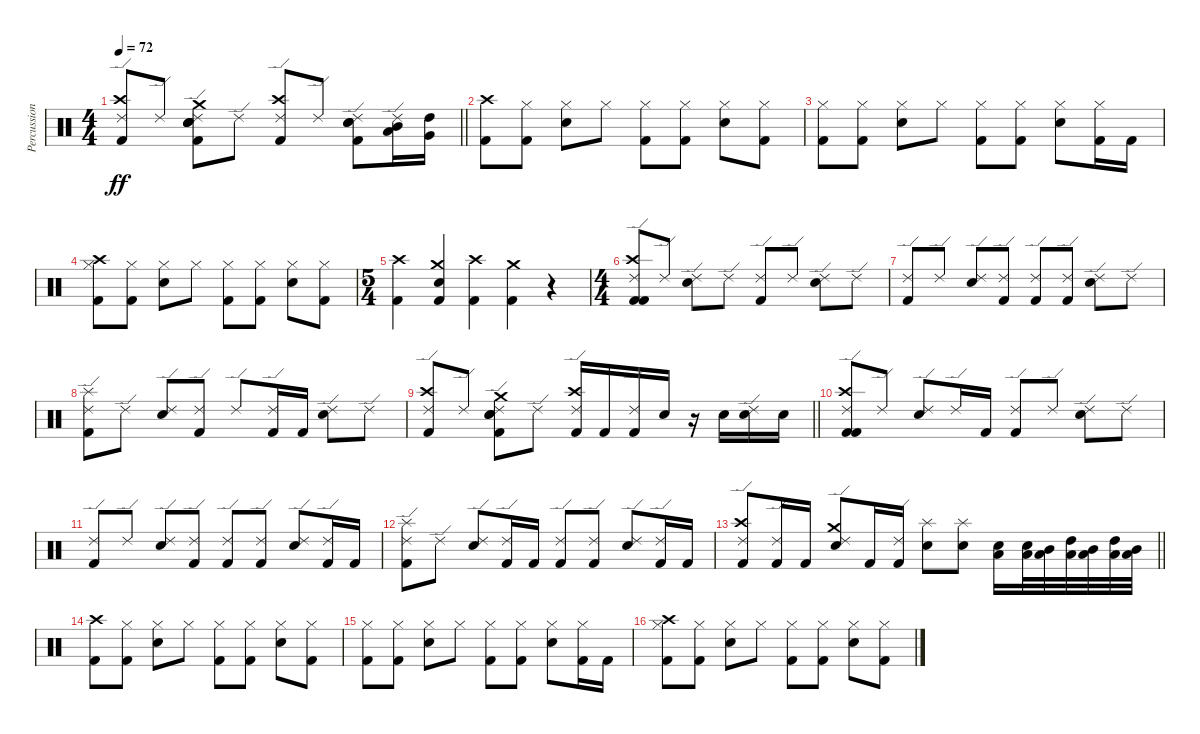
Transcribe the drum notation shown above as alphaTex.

\track ("Percussion" "Percussion") {instrument percussion}
\staff {score}
\articulation defaults
\ts (4 4)
\tempo 72
\clef neutral
\barLineRight lightlight
\ks c
("Ride (edge) 2" "Crash high (hit)" "Kick (hit) 2").8{dy ff} "Ride (edge) 2".8 ("Hand Clap (hit)" "Electric Snare (hit)" "Ride (edge) 2" "Crash medium (hit)" "Kick (hit) 2" "Snare (hit) 2").8 "Ride (edge) 2".8 ("Ride (edge) 2" "Crash high (hit)" "Kick (hit) 2").8 "Ride (edge) 2".8 ("Ride (edge) 2" "Snare (hit) 2" "Electric Snare (hit)" "Kick (hit) 2").8 ("Ride (edge) 2" "Low Floor Tom (hit)" "Mid Tom (hit)").16 ("Very Low Tom (hit)" "High Tom (hit)").16 |
("Crash high (hit)" "Kick (hit) 2").8 ("Hi-Hat (closed)" "Kick (hit) 2").8 ("Hi-Hat (closed)" "Snare (hit) 2").8 "Hi-Hat (closed)".8 ("Hi-Hat (closed)" "Kick (hit) 2").8 ("Hi-Hat (closed)" "Kick (hit) 2").8 ("Hi-Hat (closed)" "Snare (hit) 2").8 ("Hi-Hat (closed)" "Kick (hit) 2").8 |
("Hi-Hat (closed)" "Kick (hit) 2").8 ("Hi-Hat (closed)" "Kick (hit) 2").8 ("Hi-Hat (closed)" "Snare (hit) 2").8 "Hi-Hat (closed)".8 ("Hi-Hat (closed)" "Kick (hit) 2").8 ("Hi-Hat (closed)" "Kick (hit) 2").8 ("Hi-Hat (closed)" "Snare (hit) 2").8 ("Hi-Hat (closed)" "Kick (hit) 2").16 "Kick (hit) 2".16 |
("Hi-Hat (closed)" "Crash high (hit)" "Kick (hit) 2").8 ("Hi-Hat (closed)" "Kick (hit) 2").8 ("Hi-Hat (closed)" "Snare (hit) 2").8 "Hi-Hat (closed)".8 ("Hi-Hat (closed)" "Kick (hit) 2").8 ("Hi-Hat (closed)" "Kick (hit) 2").8 ("Hi-Hat (closed)" "Snare (hit) 2").8 ("Hi-Hat (closed)" "Kick (hit) 2").8 |
\ts (5 4)
("Crash high (hit)" "Kick (hit) 2").4 ("Snare (hit) 2" "Crash medium (hit)" "Kick (hit) 2").4 ("Crash high (hit)" "Kick (hit) 2").4 ("Crash medium (hit)" "Kick (hit) 2").4 r.4 |
\ts (4 4)
("Crash high (hit)" "Ride (edge) 2" "Kick (hit) 2" "Kick (hit) 2").8 "Ride (edge) 2".8 ("Ride (edge) 2" "Snare (hit) 2").8 "Ride (edge) 2".8 ("Ride (edge) 2" "Kick (hit) 2").8 "Ride (edge) 2".8 ("Ride (edge) 2" "Snare (hit) 2").8 "Ride (edge) 2".8 |
("Ride (edge) 2" "Kick (hit) 2").8 "Ride (edge) 2".8 ("Ride (edge) 2" "Snare (hit) 2").8 ("Ride (edge) 2" "Kick (hit) 2").8 ("Ride (edge) 2" "Kick (hit) 2").8 ("Ride (edge) 2" "Kick (hit) 2").8 ("Snare (hit) 2" "Ride (edge) 2").8 "Ride (edge) 2".8 |
("Splash (hit)" "Ride (edge) 2" "Kick (hit) 2").8 "Ride (edge) 2".8 ("Ride (edge) 2" "Snare (hit) 2").8 ("Ride (edge) 2" "Kick (hit) 2").8 "Ride (edge) 2".8 ("Ride (edge) 2" "Kick (hit) 2").16 "Kick (hit) 2".16 ("Ride (edge) 2" "Snare (hit) 2").8 "Ride (edge) 2".8 |
\barLineRight lightlight
("Ride (edge) 2" "Crash high (hit)" "Kick (hit) 2").8 "Ride (edge) 2".8 ("Ride (edge) 2" "Electric Snare (hit)" "Snare (hit) 2" "Crash medium (hit)" "Kick (hit) 2").8 "Ride (edge) 2".8 ("Ride (edge) 2" "Crash high (hit)" "Kick (hit) 2").16 "Kick (hit) 2".16 ("Ride (edge) 2" "Kick (hit) 2").16 "Snare (hit) 2".16 r.16 "Snare (hit) 2".16 ("Ride (edge) 2" "Snare (hit) 2").16 "Snare (hit) 2".16 |
("Crash high (hit)" "Ride (edge) 2" "Kick (hit) 2" "Kick (hit) 2").8 "Ride (edge) 2".8 ("Ride (edge) 2" "Snare (hit) 2").8 "Ride (edge) 2".16 "Kick (hit) 2".16 ("Ride (edge) 2" "Kick (hit) 2").8 "Ride (edge) 2".8 ("Ride (edge) 2" "Snare (hit) 2").8 "Ride (edge) 2".8 |
("Ride (edge) 2" "Kick (hit) 2").8 "Ride (edge) 2".8 ("Ride (edge) 2" "Snare (hit) 2").8 ("Ride (edge) 2" "Kick (hit) 2").8 ("Ride (edge) 2" "Kick (hit) 2").8 ("Ride (edge) 2" "Kick (hit) 2").8 ("Snare (hit) 2" "Ride (edge) 2").8 ("Ride (edge) 2" "Kick (hit) 2").16 "Kick (hit) 2".16 |
("Splash (hit)" "Kick (hit) 2" "Ride (edge) 2").8 "Ride (edge) 2".8 ("Ride (edge) 2" "Snare (hit) 2").8 ("Ride (edge) 2" "Kick (hit) 2").16 "Kick (hit) 2".16 ("Ride (edge) 2" "Kick (hit) 2").8 ("Ride (edge) 2" "Kick (hit) 2").8 ("Ride (edge) 2" "Snare (hit) 2").8 ("Ride (edge) 2" "Kick (hit) 2").16 "Kick (hit) 2".16 |
\barLineRight lightlight
("Ride (edge) 2" "Crash high (hit)" "Kick (hit) 2").8 ("Ride (edge) 2" "Kick (hit) 2").16 "Kick (hit) 2".16 ("Ride (edge) 2" "Crash medium (hit)" "Snare (hit) 2").8 "Kick (hit) 2".16 ("Ride (edge) 2" "Kick (hit) 2").16 ("Splash (hit)" "Snare (hit) 2").8 ("Splash (hit)" "Snare (hit) 2").8 ("Low Floor Tom (hit)" "Snare (hit) 2").16 ("Low Floor Tom (hit)" "Snare (hit) 2").32 ("Low Floor Tom (hit)" "Mid Tom (hit)").32 ("Low Floor Tom (hit)" "High Tom (hit)").32 ("Low Floor Tom (hit)" "Mid Tom (hit)").32 ("Low Floor Tom (hit)" "High Tom (hit)").32 ("Low Floor Tom (hit)" "Mid Tom (hit)").32 |
("Crash high (hit)" "Kick (hit) 2").8 ("Hi-Hat (closed)" "Kick (hit) 2").8 ("Hi-Hat (closed)" "Snare (hit) 2").8 "Hi-Hat (closed)".8 ("Hi-Hat (closed)" "Kick (hit) 2").8 ("Hi-Hat (closed)" "Kick (hit) 2").8 ("Hi-Hat (closed)" "Snare (hit) 2").8 ("Hi-Hat (closed)" "Kick (hit) 2").8 |
("Hi-Hat (closed)" "Kick (hit) 2").8 ("Hi-Hat (closed)" "Kick (hit) 2").8 ("Hi-Hat (closed)" "Snare (hit) 2").8 "Hi-Hat (closed)".8 ("Hi-Hat (closed)" "Kick (hit) 2").8 ("Hi-Hat (closed)" "Kick (hit) 2").8 ("Hi-Hat (closed)" "Snare (hit) 2").8 ("Hi-Hat (closed)" "Kick (hit) 2").16 "Kick (hit) 2".16 |
("Hi-Hat (closed)" "Crash high (hit)" "Kick (hit) 2").8 ("Hi-Hat (closed)" "Kick (hit) 2").8 ("Hi-Hat (closed)" "Snare (hit) 2").8 "Hi-Hat (closed)".8 ("Hi-Hat (closed)" "Kick (hit) 2").8 ("Hi-Hat (closed)" "Kick (hit) 2").8 ("Hi-Hat (closed)" "Snare (hit) 2").8 ("Hi-Hat (closed)" "Kick (hit) 2").8
